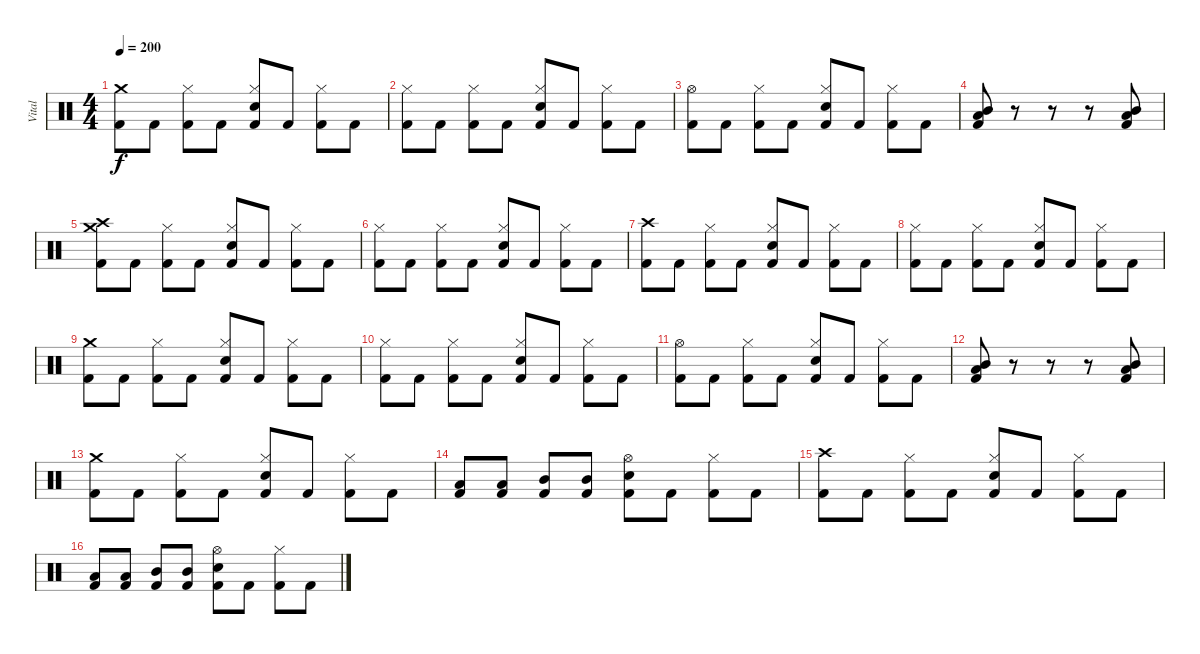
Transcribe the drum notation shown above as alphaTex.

\track ("Vital" "Vital") {instrument percussion}
\staff {score}
\articulation defaults
\ts (4 4)
\tempo 200
\clef neutral
\ks c
("Crash medium (hit)" "Kick (hit) 2").8{dy f} "Kick (hit) 2".8 ("Hi-Hat (closed)" "Kick (hit) 2").8 "Kick (hit) 2".8 ("Hi-Hat (closed)" "Snare (hit) 2" "Kick (hit) 2").8 "Kick (hit) 2".8 ("Hi-Hat (closed)" "Kick (hit) 2").8 "Kick (hit) 2".8 |
("Hi-Hat (closed)" "Kick (hit) 2").8 "Kick (hit) 2".8 ("Hi-Hat (closed)" "Kick (hit) 2").8 "Kick (hit) 2".8 ("Hi-Hat (closed)" "Snare (hit) 2" "Kick (hit) 2").8 "Kick (hit) 2".8 ("Hi-Hat (closed)" "Kick (hit) 2").8 "Kick (hit) 2".8 |
("Hi-Hat (open)" "Kick (hit) 2").8 "Kick (hit) 2".8 ("Hi-Hat (closed)" "Kick (hit) 2").8 "Kick (hit) 2".8 ("Hi-Hat (closed)" "Snare (hit) 2" "Kick (hit) 2").8 "Kick (hit) 2".8 ("Hi-Hat (closed)" "Kick (hit) 2").8 "Kick (hit) 2".8 |
("Low Tom (hit)" "Mid Tom (hit)" "Kick (hit) 2").8 r.8 r.8 r.8 ("Low Tom (hit)" "Mid Tom (hit)" "Kick (hit) 2").8 |
("Crash medium (hit)" "Crash high (hit)" "Kick (hit) 2").8 "Kick (hit) 2".8 ("Hi-Hat (closed)" "Kick (hit) 2").8 "Kick (hit) 2".8 ("Hi-Hat (closed)" "Snare (hit) 2" "Kick (hit) 2").8 "Kick (hit) 2".8 ("Hi-Hat (closed)" "Kick (hit) 2").8 "Kick (hit) 2".8 |
("Hi-Hat (closed)" "Kick (hit) 2").8 "Kick (hit) 2".8 ("Hi-Hat (closed)" "Kick (hit) 2").8 "Kick (hit) 2".8 ("Hi-Hat (closed)" "Snare (hit) 2" "Kick (hit) 2").8 "Kick (hit) 2".8 ("Hi-Hat (closed)" "Kick (hit) 2").8 "Kick (hit) 2".8 |
("Crash high (hit)" "Kick (hit) 2").8 "Kick (hit) 2".8 ("Hi-Hat (closed)" "Kick (hit) 2").8 "Kick (hit) 2".8 ("Hi-Hat (closed)" "Snare (hit) 2" "Kick (hit) 2").8 "Kick (hit) 2".8 ("Hi-Hat (closed)" "Kick (hit) 2").8 "Kick (hit) 2".8 |
("Hi-Hat (closed)" "Kick (hit) 2").8 "Kick (hit) 2".8 ("Hi-Hat (closed)" "Kick (hit) 2").8 "Kick (hit) 2".8 ("Hi-Hat (closed)" "Snare (hit) 2" "Kick (hit) 2").8 "Kick (hit) 2".8 ("Hi-Hat (closed)" "Kick (hit) 2").8 "Kick (hit) 2".8 |
("Crash medium (hit)" "Kick (hit) 2").8 "Kick (hit) 2".8 ("Hi-Hat (closed)" "Kick (hit) 2").8 "Kick (hit) 2".8 ("Hi-Hat (closed)" "Snare (hit) 2" "Kick (hit) 2").8 "Kick (hit) 2".8 ("Hi-Hat (closed)" "Kick (hit) 2").8 "Kick (hit) 2".8 |
("Hi-Hat (closed)" "Kick (hit) 2").8 "Kick (hit) 2".8 ("Hi-Hat (closed)" "Kick (hit) 2").8 "Kick (hit) 2".8 ("Hi-Hat (closed)" "Snare (hit) 2" "Kick (hit) 2").8 "Kick (hit) 2".8 ("Hi-Hat (closed)" "Kick (hit) 2").8 "Kick (hit) 2".8 |
("Hi-Hat (open)" "Kick (hit) 2").8 "Kick (hit) 2".8 ("Hi-Hat (closed)" "Kick (hit) 2").8 "Kick (hit) 2".8 ("Hi-Hat (closed)" "Snare (hit) 2" "Kick (hit) 2").8 "Kick (hit) 2".8 ("Hi-Hat (closed)" "Kick (hit) 2").8 "Kick (hit) 2".8 |
("Low Tom (hit)" "Mid Tom (hit)" "Kick (hit) 2").8 r.8 r.8 r.8 ("Low Tom (hit)" "Mid Tom (hit)" "Kick (hit) 2").8 |
("Crash medium (hit)" "Kick (hit) 2").8 "Kick (hit) 2".8 ("Hi-Hat (closed)" "Kick (hit) 2").8 "Kick (hit) 2".8 ("Hi-Hat (closed)" "Snare (hit) 2" "Kick (hit) 2").8 "Kick (hit) 2".8 ("Hi-Hat (closed)" "Kick (hit) 2").8 "Kick (hit) 2".8 |
("Low Tom (hit)" "Kick (hit) 2").8 ("Low Tom (hit)" "Kick (hit) 2").8 ("Mid Tom (hit)" "Kick (hit) 2").8 ("Mid Tom (hit)" "Kick (hit) 2").8 ("Hi-Hat (open)" "Snare (hit) 2" "Kick (hit) 2").8 "Kick (hit) 2".8 ("Hi-Hat (closed)" "Kick (hit) 2").8 "Kick (hit) 2".8 |
("Crash high (hit)" "Kick (hit) 2").8 "Kick (hit) 2".8 ("Hi-Hat (closed)" "Kick (hit) 2").8 "Kick (hit) 2".8 ("Hi-Hat (closed)" "Snare (hit) 2" "Kick (hit) 2").8 "Kick (hit) 2".8 ("Hi-Hat (closed)" "Kick (hit) 2").8 "Kick (hit) 2".8 |
("Low Tom (hit)" "Kick (hit) 2").8 ("Low Tom (hit)" "Kick (hit) 2").8 ("Mid Tom (hit)" "Kick (hit) 2").8 ("Mid Tom (hit)" "Kick (hit) 2").8 ("Hi-Hat (open)" "Snare (hit) 2" "Kick (hit) 2").8 "Kick (hit) 2".8 ("Hi-Hat (closed)" "Kick (hit) 2").8 "Kick (hit) 2".8
